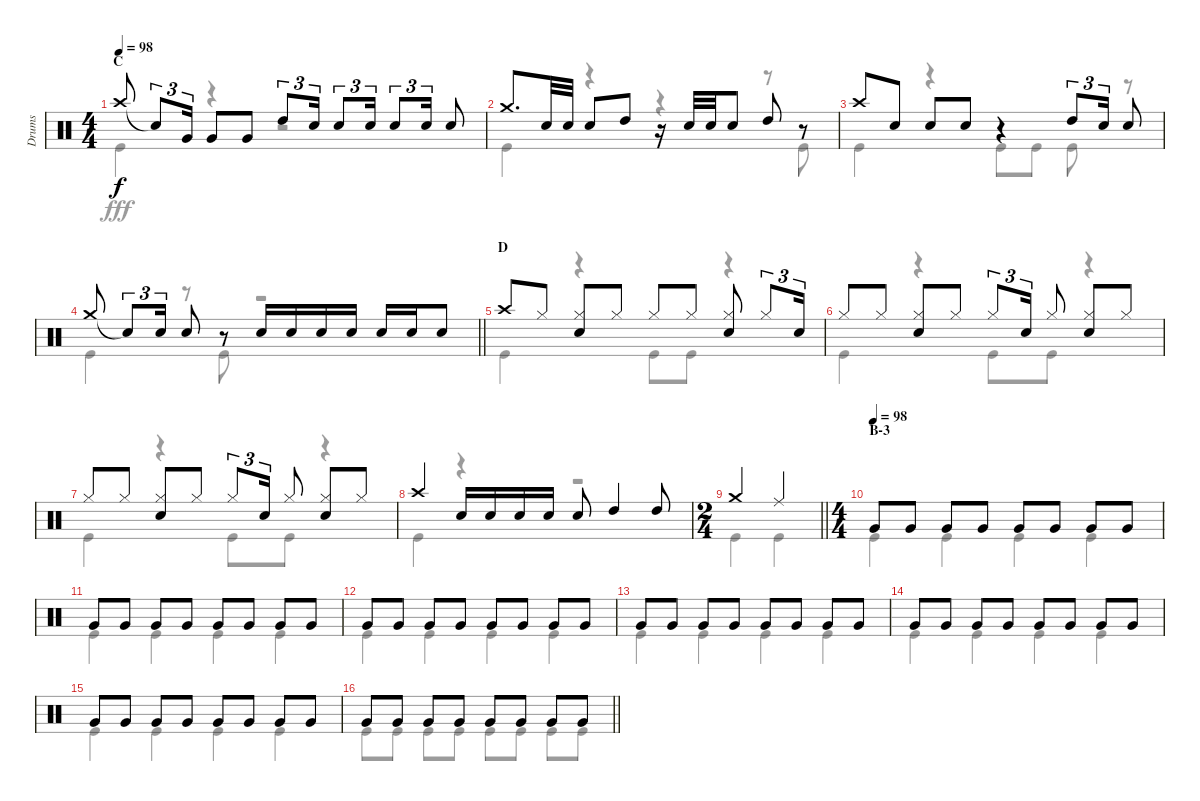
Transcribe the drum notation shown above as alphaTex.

\track ("Drums" "Drums") {instrument percussion}
\staff {score}
\articulation defaults
\voice
\ts (4 4)
\section ("" "C")
\tempo 98
\clef neutral
\ks c "Crash high (hit)".8{dy f} "Snare (hit)"{t}.8{tu (3 2)} "Very Low Tom (hit)".16{tu (3 2)} "Very Low Tom (hit)".8 "Very Low Tom (hit)".8 "High Tom (hit)".8{tu (3 2)} "Snare (hit) 2".16{tu (3 2)} "Snare (hit) 2".8{tu (3 2)} "Snare (hit) 2".16{tu (3 2)} "Snare (hit) 2".8{tu (3 2)} "Snare (hit) 2".16{tu (3 2)} "Snare (hit) 2".8
|
"Crash medium (hit)".8{d} "Snare (hit) 2".32 "Snare (hit) 2".32 "Snare (hit) 2".8 "High Tom (hit)".8 r.16 "Snare (hit) 2".32 "Snare (hit) 2".32 "Snare (hit) 2".8 "High Tom (hit)".8 r.8 |
"Crash high (hit)".8 "Snare (hit) 2".8 "Snare (hit) 2".8 "Snare (hit) 2".8 r.4 "High Tom (hit)".8{tu (3 2)} "Snare (hit) 2".16{tu (3 2)} "Snare (hit) 2".8 |
\barLineRight lightlight "Crash medium (hit)".8 "Snare (hit)"{t}.8{tu (3 2)} "Snare (hit) 2".16{tu (3 2)} "Snare (hit) 2".8
r.8 "Snare (hit) 2".16 "Snare (hit) 2".16 "Snare (hit) 2".16 "Snare (hit) 2".16 "Snare (hit) 2".16 "Snare (hit) 2".16 "Snare (hit) 2".8 |
\section ("" "D")
"Crash high (hit)".8 "Hi-Hat (closed)".8 ("Hi-Hat (closed)" "Snare (hit) 2").8 "Hi-Hat (closed)".8 "Hi-Hat (closed)".8 "Hi-Hat (closed)".8 ("Hi-Hat (closed)" "Snare (hit) 2").8 "Hi-Hat (closed)".8{tu (3 2)} "Snare (hit) 2".16{tu (3 2)} |
"Hi-Hat (closed)".8 "Hi-Hat (closed)".8 ("Hi-Hat (closed)" "Snare (hit) 2").8 "Hi-Hat (closed)".8 "Hi-Hat (closed)".8{tu (3 2)} "Snare (hit) 2".16{tu (3 2)} "Hi-Hat (closed)".8 ("Hi-Hat (closed)" "Snare (hit) 2").8 "Hi-Hat (closed)".8 |
"Hi-Hat (closed)".8 "Hi-Hat (closed)".8 ("Hi-Hat (closed)" "Snare (hit) 2").8 "Hi-Hat (closed)".8 "Hi-Hat (closed)".8{tu (3 2)} "Snare (hit) 2".16{tu (3 2)} "Hi-Hat (closed)".8 ("Hi-Hat (closed)" "Snare (hit) 2").8 "Hi-Hat (closed)".8 |
"Crash high (hit)".4 "Snare (hit) 2".16 "Snare (hit) 2".16 "Snare (hit) 2".16 "Snare (hit) 2".16 "Snare (hit) 2".8 "High Tom (hit)".4 "High Tom (hit)".8 |
\ts (2 4)
\barLineRight lightlight "Crash medium (hit)".4 "Ride (middle)".4
|
\ts (4 4)
\section ("" "B-3")
\tempo (98)
"Very Low Tom (hit)".8 "Very Low Tom (hit)".8 "Very Low Tom (hit)".8 "Very Low Tom (hit)".8 "Very Low Tom (hit)".8 "Very Low Tom (hit)".8 "Very Low Tom (hit)".8 "Very Low Tom (hit)".8 |
"Very Low Tom (hit)".8 "Very Low Tom (hit)".8 "Very Low Tom (hit)".8 "Very Low Tom (hit)".8 "Very Low Tom (hit)".8 "Very Low Tom (hit)".8 "Very Low Tom (hit)".8 "Very Low Tom (hit)".8 |
"Very Low Tom (hit)".8 "Very Low Tom (hit)".8 "Very Low Tom (hit)".8 "Very Low Tom (hit)".8 "Very Low Tom (hit)".8 "Very Low Tom (hit)".8 "Very Low Tom (hit)".8 "Very Low Tom (hit)".8 |
"Very Low Tom (hit)".8 "Very Low Tom (hit)".8 "Very Low Tom (hit)".8 "Very Low Tom (hit)".8 "Very Low Tom (hit)".8 "Very Low Tom (hit)".8 "Very Low Tom (hit)".8 "Very Low Tom (hit)".8 |
"Very Low Tom (hit)".8 "Very Low Tom (hit)".8 "Very Low Tom (hit)".8 "Very Low Tom (hit)".8 "Very Low Tom (hit)".8 "Very Low Tom (hit)".8 "Very Low Tom (hit)".8 "Very Low Tom (hit)".8 |
"Very Low Tom (hit)".8 "Very Low Tom (hit)".8 "Very Low Tom (hit)".8 "Very Low Tom (hit)".8 "Very Low Tom (hit)".8 "Very Low Tom (hit)".8 "Very Low Tom (hit)".8 "Very Low Tom (hit)".8 |
\barLineRight lightlight "Very Low Tom (hit)".8 "Very Low Tom (hit)".8 "Very Low Tom (hit)".8 "Very Low Tom (hit)".8 "Very Low Tom (hit)".8 "Very Low Tom (hit)".8 "Very Low Tom (hit)".8 "Very Low Tom (hit)".8
\voice
\clef neutral
\ottava regular
\simile none
\ks c "Kick (hit)".4{dy fff}
r.4 r.2 |
"Kick (hit)".4 r.4 r.4 r.8 "Kick (hit)".8 |
"Kick (hit)".4 r.4 "Kick (hit)".8 "Kick (hit)".8 "Kick (hit)".8 r.8 |
\barLineRight lightlight "Kick (hit)".4
r.8 "Kick (hit)".8 r.2 |
"Kick (hit)".4 r.4 "Kick (hit)".8 "Kick (hit)".8 r.4 |
"Kick (hit)".4 r.4 "Kick (hit)".8 "Kick (hit)".8 r.4 |
"Kick (hit)".4 r.4 "Kick (hit)".8 "Kick (hit)".8 r.4 |
"Kick (hit)".4 r.4 r.2 |
\barLineRight lightlight "Kick (hit)".4 "Kick (hit)".4
|
"Kick (hit)".4 "Kick (hit)".4 "Kick (hit)".4 "Kick (hit)".4 |
"Kick (hit)".4 "Kick (hit)".4 "Kick (hit)".4 "Kick (hit)".4 |
"Kick (hit)".4 "Kick (hit)".4 "Kick (hit)".4 "Kick (hit)".4 |
"Kick (hit)".4 "Kick (hit)".4 "Kick (hit)".4 "Kick (hit)".4 |
"Kick (hit)".4 "Kick (hit)".4 "Kick (hit)".4 "Kick (hit)".4 |
"Kick (hit)".4 "Kick (hit)".4 "Kick (hit)".4 "Kick (hit)".4 |
\barLineRight lightlight "Kick (hit)".8 "Kick (hit)".8 "Kick (hit)".8 "Kick (hit)".8 "Kick (hit)".8 "Kick (hit)".8 "Kick (hit)".8 "Kick (hit)".8
